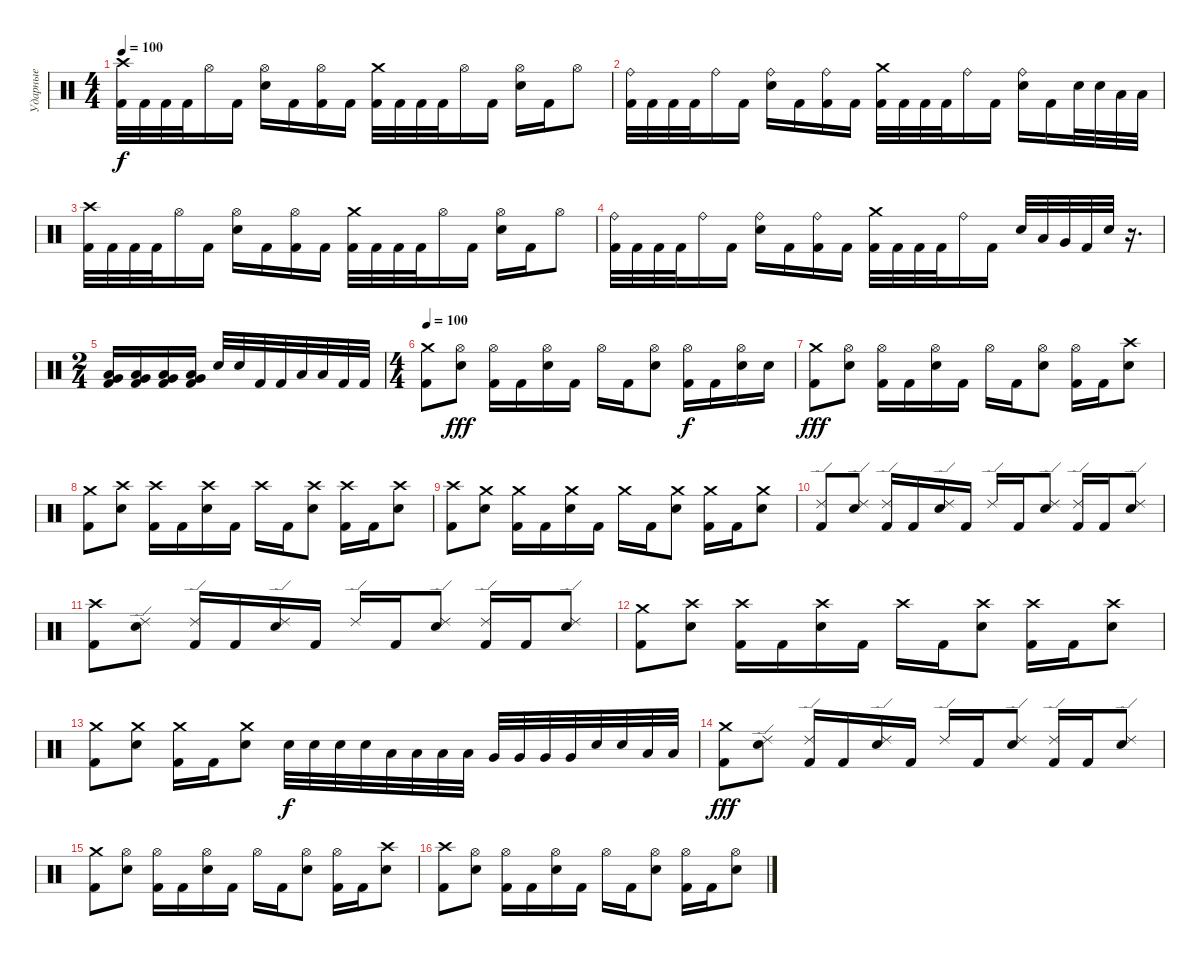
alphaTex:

\track ("Ударные" "Ударные") {instrument percussion}
\staff {score}
\articulation defaults
\ts (4 4)
\tempo 100
\clef neutral
\ks c
("Crash high (hit)" "Kick (hit) 2").32{dy f} "Kick (hit) 2".32 "Kick (hit) 2".32 "Kick (hit) 2".32 "Hi-Hat (open)".16 "Kick (hit) 2".16 ("Hi-Hat (open)" "Snare (hit) 2").16 "Kick (hit) 2".16 ("Hi-Hat (open)" "Kick (hit) 2").16 "Kick (hit) 2".16 ("Crash medium (hit)" "Kick (hit) 2").32 "Kick (hit) 2".32 "Kick (hit) 2".32 "Kick (hit) 2".32 "Hi-Hat (open)".16 "Kick (hit) 2".16 ("Hi-Hat (open)" "Snare (hit) 2").16 "Kick (hit) 2".16 "Hi-Hat (open)".8 |
("Ride (bell)" "Kick (hit) 2").32 "Kick (hit) 2".32 "Kick (hit) 2".32 "Kick (hit) 2".32 "Ride (bell)".16 "Kick (hit) 2".16 ("Ride (bell)" "Snare (hit) 2").16 "Kick (hit) 2".16 ("Ride (bell)" "Kick (hit) 2").16 "Kick (hit) 2".16 ("Crash medium (hit)" "Kick (hit) 2").32 "Kick (hit) 2".32 "Kick (hit) 2".32 "Kick (hit) 2".32 "Ride (bell)".16 "Kick (hit) 2".16 ("Ride (bell)" "Snare (hit) 2").16 "Kick (hit) 2".16 "Snare (hit) 2".32 "Snare (hit) 2".32 "Low Floor Tom (hit)".32 "Low Floor Tom (hit)".32 |
("Crash high (hit)" "Kick (hit) 2").32 "Kick (hit) 2".32 "Kick (hit) 2".32 "Kick (hit) 2".32 "Hi-Hat (open)".16 "Kick (hit) 2".16 ("Hi-Hat (open)" "Snare (hit) 2").16 "Kick (hit) 2".16 ("Hi-Hat (open)" "Kick (hit) 2").16 "Kick (hit) 2".16 ("Crash medium (hit)" "Kick (hit) 2").32 "Kick (hit) 2".32 "Kick (hit) 2".32 "Kick (hit) 2".32 "Hi-Hat (open)".16 "Kick (hit) 2".16 ("Hi-Hat (open)" "Snare (hit) 2").16 "Kick (hit) 2".16 "Hi-Hat (open)".8 |
("Ride (bell)" "Kick (hit) 2").32 "Kick (hit) 2".32 "Kick (hit) 2".32 "Kick (hit) 2".32 "Ride (bell)".16 "Kick (hit) 2".16 ("Ride (bell)" "Snare (hit) 2").16 "Kick (hit) 2".16 ("Ride (bell)" "Kick (hit) 2").16 "Kick (hit) 2".16 ("Crash medium (hit)" "Kick (hit) 2").32 "Kick (hit) 2".32 "Kick (hit) 2".32 "Kick (hit) 2".32 "Ride (bell)".16 "Kick (hit) 2".16 "Snare (hit) 2".32 "Low Tom (hit)".32 "Very Low Tom (hit)".32 "Kick (hit) 2".32 "Snare (hit) 2".32 r.16{d} |
\ts (2 4)
("Very Low Tom (hit)" "Low Floor Tom (hit)" "Kick (hit) 2").16 ("Very Low Tom (hit)" "Low Floor Tom (hit)" "Kick (hit) 2").16 ("Very Low Tom (hit)" "Low Floor Tom (hit)" "Kick (hit) 2").16 ("Very Low Tom (hit)" "Low Floor Tom (hit)" "Kick (hit) 2").16 "Snare (hit) 2".32 "Snare (hit) 2".32 "Kick (hit) 2".32 "Kick (hit) 2".32 "Low Floor Tom (hit)".32 "Low Floor Tom (hit)".32 "Kick (hit) 2".32 "Kick (hit) 2".32 |
\ts (4 4)
\tempo 100
("Crash medium (hit)" "Kick (hit) 2").8 ("Hi-Hat (open)" "Snare (hit) 2").8{dy fff} ("Hi-Hat (open)" "Kick (hit) 2").16 "Kick (hit) 2".16 ("Hi-Hat (open)" "Snare (hit) 2").16 "Kick (hit) 2".16 "Hi-Hat (open)".16 "Kick (hit) 2".16 ("Hi-Hat (open)" "Snare (hit) 2").8 ("Hi-Hat (open)" "Kick (hit) 2").16{dy f} "Kick (hit) 2".16 ("Hi-Hat (open)" "Snare (hit) 2").16 "Snare (hit) 2".16 |
("Crash medium (hit)" "Kick (hit) 2").8{dy fff} ("Hi-Hat (open)" "Snare (hit) 2").8 ("Hi-Hat (open)" "Kick (hit) 2").16 "Kick (hit) 2".16 ("Hi-Hat (open)" "Snare (hit) 2").16 "Kick (hit) 2".16 "Hi-Hat (open)".16 "Kick (hit) 2".16 ("Hi-Hat (open)" "Snare (hit) 2").8 ("Hi-Hat (open)" "Kick (hit) 2").16 "Kick (hit) 2".16 ("Crash high (hit)" "Snare (hit) 2").8 |
("Crash medium (hit)" "Kick (hit) 2").8 ("Crash high (hit)" "Snare (hit) 2").8 ("Crash high (hit)" "Kick (hit) 2").16 "Kick (hit) 2".16 ("Crash high (hit)" "Snare (hit) 2").16 "Kick (hit) 2".16 "Crash high (hit)".16 "Kick (hit) 2".16 ("Crash high (hit)" "Snare (hit) 2").8 ("Crash high (hit)" "Kick (hit) 2").16 "Kick (hit) 2".16 ("Crash high (hit)" "Snare (hit) 2").8 |
("Crash high (hit)" "Kick (hit) 2").8 ("Crash medium (hit)" "Snare (hit) 2").8 ("Crash medium (hit)" "Kick (hit) 2").16 "Kick (hit) 2".16 ("Crash medium (hit)" "Snare (hit) 2").16 "Kick (hit) 2".16 "Crash medium (hit)".16 "Kick (hit) 2".16 ("Crash medium (hit)" "Snare (hit) 2").8 ("Crash medium (hit)" "Kick (hit) 2").16 "Kick (hit) 2".16 ("Crash medium (hit)" "Snare (hit) 2").8 |
("Ride (edge) 2" "Kick (hit) 2").8 ("Ride (edge) 2" "Snare (hit) 2").8 ("Ride (edge) 2" "Kick (hit) 2").16 "Kick (hit) 2".16 ("Ride (edge) 2" "Snare (hit) 2").16 "Kick (hit) 2".16 "Ride (edge) 2".16 "Kick (hit) 2".16 ("Ride (edge) 2" "Snare (hit) 2").8 ("Ride (edge) 2" "Kick (hit) 2").16 "Kick (hit) 2".16 ("Ride (edge) 2" "Snare (hit) 2").8 |
("Crash high (hit)" "Kick (hit) 2").8 ("Ride (edge) 2" "Snare (hit) 2").8 ("Ride (edge) 2" "Kick (hit) 2").16 "Kick (hit) 2".16 ("Ride (edge) 2" "Snare (hit) 2").16 "Kick (hit) 2".16 "Ride (edge) 2".16 "Kick (hit) 2".16 ("Ride (edge) 2" "Snare (hit) 2").8 ("Ride (edge) 2" "Kick (hit) 2").16 "Kick (hit) 2".16 ("Ride (edge) 2" "Snare (hit) 2").8 |
("Crash medium (hit)" "Kick (hit) 2").8 ("Crash high (hit)" "Snare (hit) 2").8 ("Crash high (hit)" "Kick (hit) 2").16 "Kick (hit) 2".16 ("Crash high (hit)" "Snare (hit) 2").16 "Kick (hit) 2".16 "Crash high (hit)".16 "Kick (hit) 2".16 ("Crash high (hit)" "Snare (hit) 2").8 ("Crash high (hit)" "Kick (hit) 2").16 "Kick (hit) 2".16 ("Crash high (hit)" "Snare (hit) 2").8 |
("Crash medium (hit)" "Kick (hit) 2").8 ("Crash medium (hit)" "Snare (hit) 2").8 ("Crash medium (hit)" "Kick (hit) 2").16 "Kick (hit) 2".16 ("Crash medium (hit)" "Snare (hit) 2").8 "Snare (hit) 2".32{dy f} "Snare (hit) 2".32 "Snare (hit) 2".32 "Snare (hit) 2".32 "Low Floor Tom (hit)".32 "Low Floor Tom (hit)".32 "Low Floor Tom (hit)".32 "Low Floor Tom (hit)".32 "Very Low Tom (hit)".32 "Very Low Tom (hit)".32 "Very Low Tom (hit)".32 "Very Low Tom (hit)".32 "Snare (hit) 2".32 "Snare (hit) 2".32 "Low Floor Tom (hit)".32 "Low Floor Tom (hit)".32 |
("Crash medium (hit)" "Kick (hit) 2").8{dy fff} ("Ride (edge) 2" "Snare (hit) 2").8 ("Ride (edge) 2" "Kick (hit) 2").16 "Kick (hit) 2".16 ("Ride (edge) 2" "Snare (hit) 2").16 "Kick (hit) 2".16 "Ride (edge) 2".16 "Kick (hit) 2".16 ("Ride (edge) 2" "Snare (hit) 2").8 ("Ride (edge) 2" "Kick (hit) 2").16 "Kick (hit) 2".16 ("Ride (edge) 2" "Snare (hit) 2").8 |
("Crash medium (hit)" "Kick (hit) 2").8 ("Hi-Hat (open)" "Snare (hit) 2").8 ("Hi-Hat (open)" "Kick (hit) 2").16 "Kick (hit) 2".16 ("Hi-Hat (open)" "Snare (hit) 2").16 "Kick (hit) 2".16 "Hi-Hat (open)".16 "Kick (hit) 2".16 ("Hi-Hat (open)" "Snare (hit) 2").8 ("Hi-Hat (open)" "Kick (hit) 2").16 "Kick (hit) 2".16 ("Crash high (hit)" "Snare (hit) 2").8 |
("Crash high (hit)" "Kick (hit) 2").8 ("Hi-Hat (open)" "Snare (hit) 2").8 ("Hi-Hat (open)" "Kick (hit) 2").16 "Kick (hit) 2".16 ("Hi-Hat (open)" "Snare (hit) 2").16 "Kick (hit) 2".16 "Hi-Hat (open)".16 "Kick (hit) 2".16 ("Hi-Hat (open)" "Snare (hit) 2").8 ("Hi-Hat (open)" "Kick (hit) 2").16 "Kick (hit) 2".16 ("Hi-Hat (open)" "Snare (hit) 2").8
